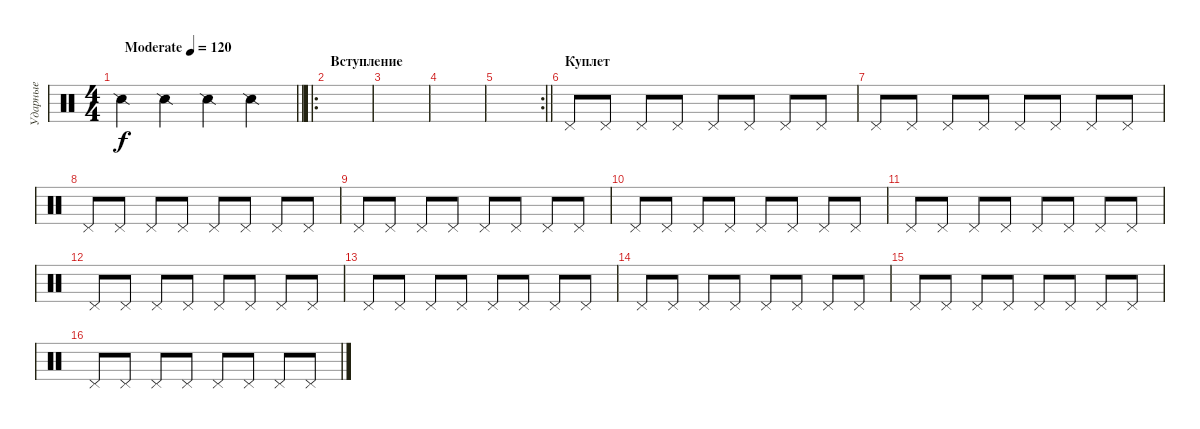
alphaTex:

\track ("Ударные" "Ударные") {instrument percussion}
\staff {score}
\articulation defaults
\ts (4 4)
\tempo (120 "Moderate")
\clef neutral
\barLineRight lightlight
\ks c "Snare (side stick) 2".4{dy f} "Snare (side stick) 2".4 "Snare (side stick) 2".4 "Snare (side stick) 2".4
|
\ro
\section ("" "Вступление")
|
|
|
\rc 2
\barLineRight lightlight
|
\section ("" "Куплет")
"Pedal Hi-Hat (hit)".8{volume 10} "Pedal Hi-Hat (hit)".8 "Pedal Hi-Hat (hit)".8 "Pedal Hi-Hat (hit)".8 "Pedal Hi-Hat (hit)".8 "Pedal Hi-Hat (hit)".8 "Pedal Hi-Hat (hit)".8 "Pedal Hi-Hat (hit)".8 |
"Pedal Hi-Hat (hit)".8 "Pedal Hi-Hat (hit)".8 "Pedal Hi-Hat (hit)".8 "Pedal Hi-Hat (hit)".8 "Pedal Hi-Hat (hit)".8 "Pedal Hi-Hat (hit)".8 "Pedal Hi-Hat (hit)".8 "Pedal Hi-Hat (hit)".8 |
"Pedal Hi-Hat (hit)".8 "Pedal Hi-Hat (hit)".8 "Pedal Hi-Hat (hit)".8 "Pedal Hi-Hat (hit)".8 "Pedal Hi-Hat (hit)".8 "Pedal Hi-Hat (hit)".8 "Pedal Hi-Hat (hit)".8 "Pedal Hi-Hat (hit)".8 |
"Pedal Hi-Hat (hit)".8 "Pedal Hi-Hat (hit)".8 "Pedal Hi-Hat (hit)".8 "Pedal Hi-Hat (hit)".8 "Pedal Hi-Hat (hit)".8 "Pedal Hi-Hat (hit)".8 "Pedal Hi-Hat (hit)".8 "Pedal Hi-Hat (hit)".8 |
"Pedal Hi-Hat (hit)".8 "Pedal Hi-Hat (hit)".8 "Pedal Hi-Hat (hit)".8 "Pedal Hi-Hat (hit)".8 "Pedal Hi-Hat (hit)".8 "Pedal Hi-Hat (hit)".8 "Pedal Hi-Hat (hit)".8 "Pedal Hi-Hat (hit)".8 |
"Pedal Hi-Hat (hit)".8 "Pedal Hi-Hat (hit)".8 "Pedal Hi-Hat (hit)".8 "Pedal Hi-Hat (hit)".8 "Pedal Hi-Hat (hit)".8 "Pedal Hi-Hat (hit)".8 "Pedal Hi-Hat (hit)".8 "Pedal Hi-Hat (hit)".8 |
"Pedal Hi-Hat (hit)".8 "Pedal Hi-Hat (hit)".8 "Pedal Hi-Hat (hit)".8 "Pedal Hi-Hat (hit)".8 "Pedal Hi-Hat (hit)".8 "Pedal Hi-Hat (hit)".8 "Pedal Hi-Hat (hit)".8 "Pedal Hi-Hat (hit)".8 |
"Pedal Hi-Hat (hit)".8 "Pedal Hi-Hat (hit)".8 "Pedal Hi-Hat (hit)".8 "Pedal Hi-Hat (hit)".8 "Pedal Hi-Hat (hit)".8 "Pedal Hi-Hat (hit)".8 "Pedal Hi-Hat (hit)".8 "Pedal Hi-Hat (hit)".8 |
"Pedal Hi-Hat (hit)".8 "Pedal Hi-Hat (hit)".8 "Pedal Hi-Hat (hit)".8 "Pedal Hi-Hat (hit)".8 "Pedal Hi-Hat (hit)".8 "Pedal Hi-Hat (hit)".8 "Pedal Hi-Hat (hit)".8 "Pedal Hi-Hat (hit)".8 |
"Pedal Hi-Hat (hit)".8 "Pedal Hi-Hat (hit)".8 "Pedal Hi-Hat (hit)".8 "Pedal Hi-Hat (hit)".8 "Pedal Hi-Hat (hit)".8 "Pedal Hi-Hat (hit)".8 "Pedal Hi-Hat (hit)".8 "Pedal Hi-Hat (hit)".8 |
"Pedal Hi-Hat (hit)".8 "Pedal Hi-Hat (hit)".8 "Pedal Hi-Hat (hit)".8 "Pedal Hi-Hat (hit)".8 "Pedal Hi-Hat (hit)".8 "Pedal Hi-Hat (hit)".8 "Pedal Hi-Hat (hit)".8 "Pedal Hi-Hat (hit)".8
